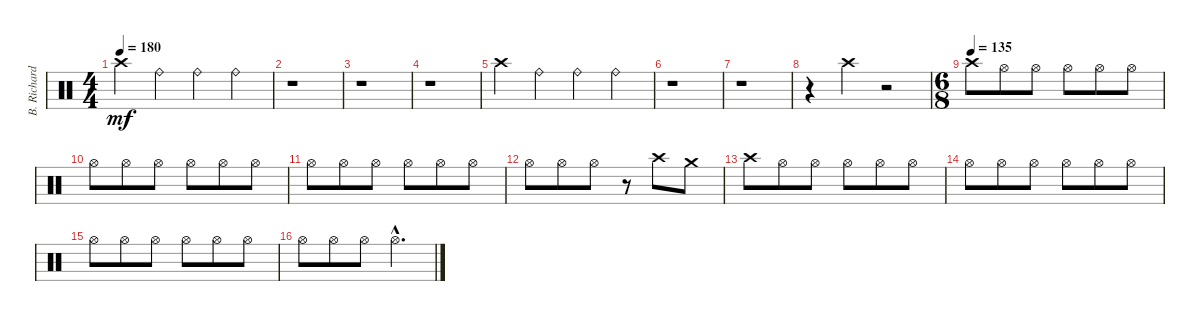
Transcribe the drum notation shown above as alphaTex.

\track ("B. Richardson Drums" "B. Richard") {instrument percussion}
\staff {score}
\articulation defaults
\ts (4 4)
\tempo 180
\clef neutral
\ks c "Crash high (hit)".4{dy mf} "Ride (bell)".4 "Ride (bell)".4 "Ride (bell)".4
|
r.1 |
r.1 |
r.1 |
"Crash high (hit)".4 "Ride (bell)".4 "Ride (bell)".4 "Ride (bell)".4 |
r.1 |
r.1 |
r.4 "Crash high (hit)".4 r.2 |
\ts (6 8)
\tempo (135)
"Crash high (hit)".8 "Hi-Hat (open)".8 "Hi-Hat (open)".8 "Hi-Hat (open)".8 "Hi-Hat (open)".8 "Hi-Hat (open)".8 |
"Hi-Hat (open)".8 "Hi-Hat (open)".8 "Hi-Hat (open)".8 "Hi-Hat (open)".8 "Hi-Hat (open)".8 "Hi-Hat (open)".8 |
"Hi-Hat (open)".8 "Hi-Hat (open)".8 "Hi-Hat (open)".8 "Hi-Hat (open)".8 "Hi-Hat (open)".8 "Hi-Hat (open)".8 |
"Hi-Hat (open)".8 "Hi-Hat (open)".8 "Hi-Hat (open)".8 r.8 "Crash high (hit)".8 "Crash medium (hit)".8 |
"Crash high (hit)".8 "Hi-Hat (open)".8 "Hi-Hat (open)".8 "Hi-Hat (open)".8 "Hi-Hat (open)".8 "Hi-Hat (open)".8 |
"Hi-Hat (open)".8 "Hi-Hat (open)".8 "Hi-Hat (open)".8 "Hi-Hat (open)".8 "Hi-Hat (open)".8 "Hi-Hat (open)".8 |
"Hi-Hat (open)".8 "Hi-Hat (open)".8 "Hi-Hat (open)".8 "Hi-Hat (open)".8 "Hi-Hat (open)".8 "Hi-Hat (open)".8 |
"Hi-Hat (open)".8 "Hi-Hat (open)".8 "Hi-Hat (open)".8 "Hi-Hat (open)"{hac}.4{d}
